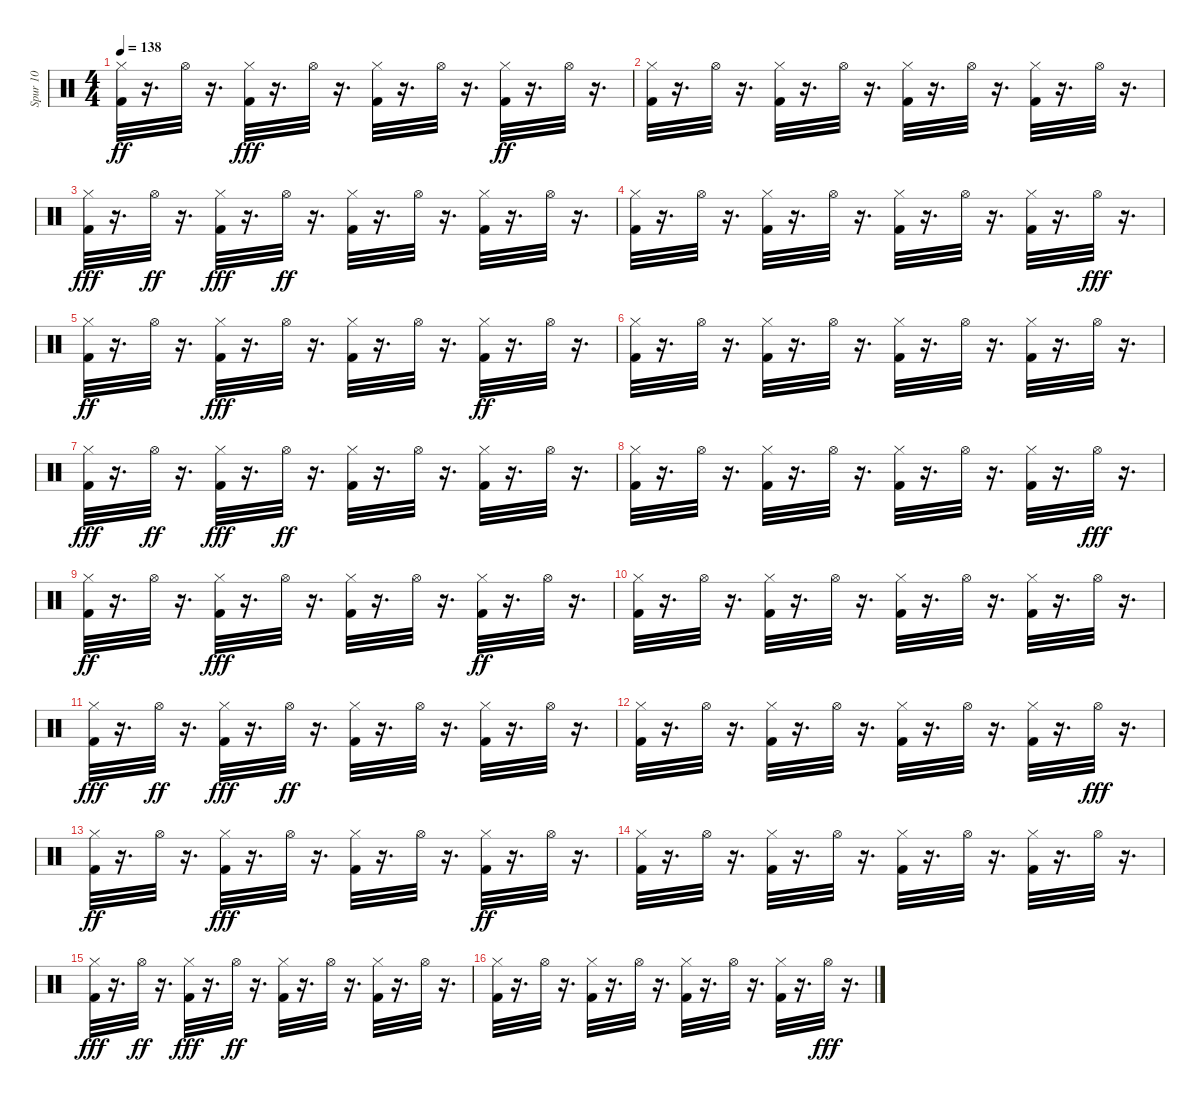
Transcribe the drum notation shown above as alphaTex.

\track ("Spur 10" "Spur 10") {instrument percussion}
\staff {score}
\articulation defaults
\ts (4 4)
\tempo 138
\clef neutral
\ks c
("Kick (hit) 2" "Hi-Hat (closed)").32{dy ff} r.16{d} "Hi-Hat (open)".32 r.16{d} ("Kick (hit) 2" "Hi-Hat (closed)").32{dy fff} r.16{d} "Hi-Hat (open)".32 r.16{d} ("Kick (hit) 2" "Hi-Hat (closed)").32 r.16{d} "Hi-Hat (open)".32 r.16{d} ("Kick (hit) 2" "Hi-Hat (closed)").32{dy ff} r.16{d} "Hi-Hat (open)".32 r.16{d} |
("Kick (hit) 2" "Hi-Hat (closed)").32 r.16{d} "Hi-Hat (open)".32 r.16{d} ("Kick (hit) 2" "Hi-Hat (closed)").32 r.16{d} "Hi-Hat (open)".32 r.16{d} ("Kick (hit) 2" "Hi-Hat (closed)").32 r.16{d} "Hi-Hat (open)".32 r.16{d} ("Kick (hit) 2" "Hi-Hat (closed)").32 r.16{d} "Hi-Hat (open)".32 r.16{d} |
("Kick (hit) 2" "Hi-Hat (closed)").32{dy fff} r.16{d} "Hi-Hat (open)".32{dy ff} r.16{d} ("Kick (hit) 2" "Hi-Hat (closed)").32{dy fff} r.16{d} "Hi-Hat (open)".32{dy ff} r.16{d} ("Kick (hit) 2" "Hi-Hat (closed)").32 r.16{d} "Hi-Hat (open)".32 r.16{d} ("Kick (hit) 2" "Hi-Hat (closed)").32 r.16{d} "Hi-Hat (open)".32 r.16{d} |
("Kick (hit) 2" "Hi-Hat (closed)").32 r.16{d} "Hi-Hat (open)".32 r.16{d} ("Kick (hit) 2" "Hi-Hat (closed)").32 r.16{d} "Hi-Hat (open)".32 r.16{d} ("Kick (hit) 2" "Hi-Hat (closed)").32 r.16{d} "Hi-Hat (open)".32 r.16{d} ("Kick (hit) 2" "Hi-Hat (closed)").32 r.16{d} "Hi-Hat (open)".32{dy fff} r.16{d} |
("Kick (hit) 2" "Hi-Hat (closed)").32{dy ff} r.16{d} "Hi-Hat (open)".32 r.16{d} ("Kick (hit) 2" "Hi-Hat (closed)").32{dy fff} r.16{d} "Hi-Hat (open)".32 r.16{d} ("Kick (hit) 2" "Hi-Hat (closed)").32 r.16{d} "Hi-Hat (open)".32 r.16{d} ("Kick (hit) 2" "Hi-Hat (closed)").32{dy ff} r.16{d} "Hi-Hat (open)".32 r.16{d} |
("Kick (hit) 2" "Hi-Hat (closed)").32 r.16{d} "Hi-Hat (open)".32 r.16{d} ("Kick (hit) 2" "Hi-Hat (closed)").32 r.16{d} "Hi-Hat (open)".32 r.16{d} ("Kick (hit) 2" "Hi-Hat (closed)").32 r.16{d} "Hi-Hat (open)".32 r.16{d} ("Kick (hit) 2" "Hi-Hat (closed)").32 r.16{d} "Hi-Hat (open)".32 r.16{d} |
("Kick (hit) 2" "Hi-Hat (closed)").32{dy fff} r.16{d} "Hi-Hat (open)".32{dy ff} r.16{d} ("Kick (hit) 2" "Hi-Hat (closed)").32{dy fff} r.16{d} "Hi-Hat (open)".32{dy ff} r.16{d} ("Kick (hit) 2" "Hi-Hat (closed)").32 r.16{d} "Hi-Hat (open)".32 r.16{d} ("Kick (hit) 2" "Hi-Hat (closed)").32 r.16{d} "Hi-Hat (open)".32 r.16{d} |
("Kick (hit) 2" "Hi-Hat (closed)").32 r.16{d} "Hi-Hat (open)".32 r.16{d} ("Kick (hit) 2" "Hi-Hat (closed)").32 r.16{d} "Hi-Hat (open)".32 r.16{d} ("Kick (hit) 2" "Hi-Hat (closed)").32 r.16{d} "Hi-Hat (open)".32 r.16{d} ("Kick (hit) 2" "Hi-Hat (closed)").32 r.16{d} "Hi-Hat (open)".32{dy fff} r.16{d} |
("Kick (hit) 2" "Hi-Hat (closed)").32{dy ff} r.16{d} "Hi-Hat (open)".32 r.16{d} ("Kick (hit) 2" "Hi-Hat (closed)").32{dy fff} r.16{d} "Hi-Hat (open)".32 r.16{d} ("Kick (hit) 2" "Hi-Hat (closed)").32 r.16{d} "Hi-Hat (open)".32 r.16{d} ("Kick (hit) 2" "Hi-Hat (closed)").32{dy ff} r.16{d} "Hi-Hat (open)".32 r.16{d} |
("Kick (hit) 2" "Hi-Hat (closed)").32 r.16{d} "Hi-Hat (open)".32 r.16{d} ("Kick (hit) 2" "Hi-Hat (closed)").32 r.16{d} "Hi-Hat (open)".32 r.16{d} ("Kick (hit) 2" "Hi-Hat (closed)").32 r.16{d} "Hi-Hat (open)".32 r.16{d} ("Kick (hit) 2" "Hi-Hat (closed)").32 r.16{d} "Hi-Hat (open)".32 r.16{d} |
("Kick (hit) 2" "Hi-Hat (closed)").32{dy fff} r.16{d} "Hi-Hat (open)".32{dy ff} r.16{d} ("Kick (hit) 2" "Hi-Hat (closed)").32{dy fff} r.16{d} "Hi-Hat (open)".32{dy ff} r.16{d} ("Kick (hit) 2" "Hi-Hat (closed)").32 r.16{d} "Hi-Hat (open)".32 r.16{d} ("Kick (hit) 2" "Hi-Hat (closed)").32 r.16{d} "Hi-Hat (open)".32 r.16{d} |
("Kick (hit) 2" "Hi-Hat (closed)").32 r.16{d} "Hi-Hat (open)".32 r.16{d} ("Kick (hit) 2" "Hi-Hat (closed)").32 r.16{d} "Hi-Hat (open)".32 r.16{d} ("Kick (hit) 2" "Hi-Hat (closed)").32 r.16{d} "Hi-Hat (open)".32 r.16{d} ("Kick (hit) 2" "Hi-Hat (closed)").32 r.16{d} "Hi-Hat (open)".32{dy fff} r.16{d} |
("Kick (hit) 2" "Hi-Hat (closed)").32{dy ff} r.16{d} "Hi-Hat (open)".32 r.16{d} ("Kick (hit) 2" "Hi-Hat (closed)").32{dy fff} r.16{d} "Hi-Hat (open)".32 r.16{d} ("Kick (hit) 2" "Hi-Hat (closed)").32 r.16{d} "Hi-Hat (open)".32 r.16{d} ("Kick (hit) 2" "Hi-Hat (closed)").32{dy ff} r.16{d} "Hi-Hat (open)".32 r.16{d} |
("Kick (hit) 2" "Hi-Hat (closed)").32 r.16{d} "Hi-Hat (open)".32 r.16{d} ("Kick (hit) 2" "Hi-Hat (closed)").32 r.16{d} "Hi-Hat (open)".32 r.16{d} ("Kick (hit) 2" "Hi-Hat (closed)").32 r.16{d} "Hi-Hat (open)".32 r.16{d} ("Kick (hit) 2" "Hi-Hat (closed)").32 r.16{d} "Hi-Hat (open)".32 r.16{d} |
("Kick (hit) 2" "Hi-Hat (closed)").32{dy fff} r.16{d} "Hi-Hat (open)".32{dy ff} r.16{d} ("Kick (hit) 2" "Hi-Hat (closed)").32{dy fff} r.16{d} "Hi-Hat (open)".32{dy ff} r.16{d} ("Kick (hit) 2" "Hi-Hat (closed)").32 r.16{d} "Hi-Hat (open)".32 r.16{d} ("Kick (hit) 2" "Hi-Hat (closed)").32 r.16{d} "Hi-Hat (open)".32 r.16{d} |
("Kick (hit) 2" "Hi-Hat (closed)").32 r.16{d} "Hi-Hat (open)".32 r.16{d} ("Kick (hit) 2" "Hi-Hat (closed)").32 r.16{d} "Hi-Hat (open)".32 r.16{d} ("Kick (hit) 2" "Hi-Hat (closed)").32 r.16{d} "Hi-Hat (open)".32 r.16{d} ("Kick (hit) 2" "Hi-Hat (closed)").32 r.16{d} "Hi-Hat (open)".32{dy fff} r.16{d}
